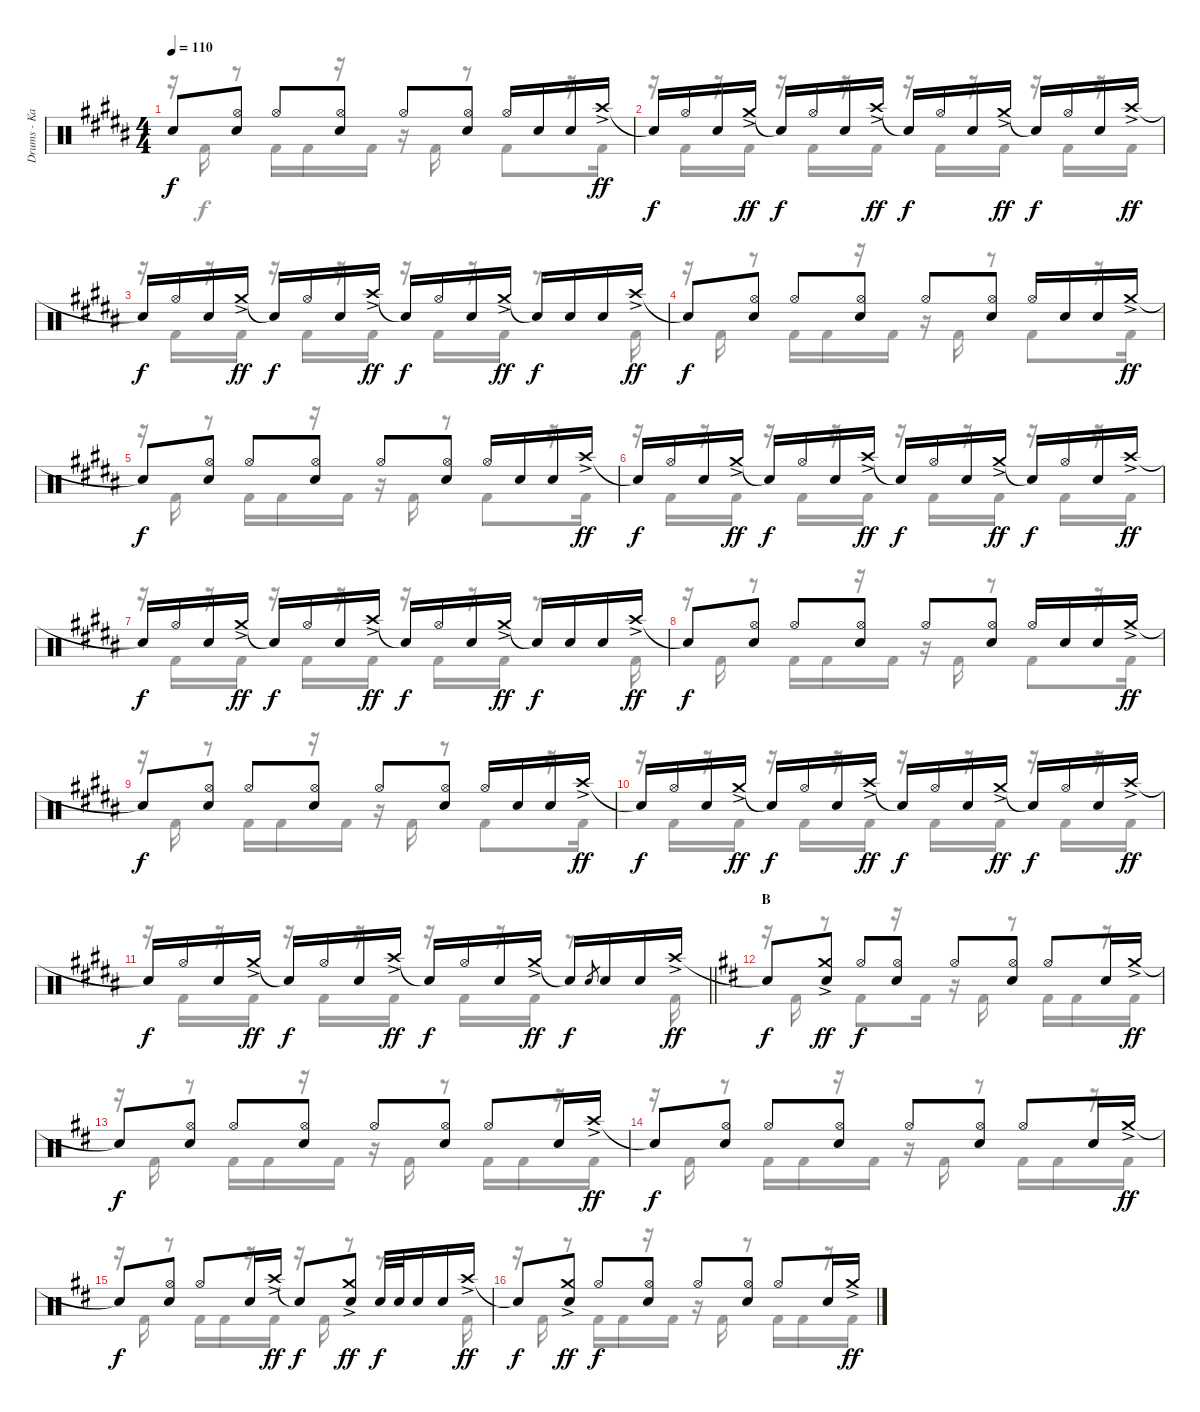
\track ("Drums - Kai" "Drums - Ka") {instrument percussion}
\staff {score}
\articulation defaults
\voice
\ts (4 4)
\tempo 110
\clef neutral
\ks b "Snare (hit)"{t}.8{dy f}
("Hi-Hat (open)" "Snare (hit) 2").8 "Hi-Hat (open)".8 ("Hi-Hat (open)" "Snare (hit) 2").8 "Hi-Hat (open)".8 ("Hi-Hat (open)" "Snare (hit) 2").8 "Hi-Hat (open)".16 "Snare (hit) 2".16 "Snare (hit) 2".16 "Crash high (hit)"{ac}.16{dy ff} |
"Snare (hit)"{t}.16{dy f} "Hi-Hat (open)".16 "Snare (hit) 2".16 "Crash medium (hit)"{ac}.16{dy ff} "Snare (hit)"{t}.16{dy f} "Hi-Hat (open)".16 "Snare (hit) 2".16 "Crash high (hit)"{ac}.16{dy ff} "Snare (hit)"{t}.16{dy f} "Hi-Hat (open)".16 "Snare (hit) 2".16 "Crash medium (hit)"{ac}.16{dy ff} "Snare (hit)"{t}.16{dy f} "Hi-Hat (open)".16 "Snare (hit) 2".16 "Crash high (hit)"{ac}.16{dy ff} |
"Snare (hit)"{t}.16{dy f} "Hi-Hat (open)".16 "Snare (hit) 2".16 "Crash medium (hit)"{ac}.16{dy ff} "Snare (hit)"{t}.16{dy f} "Hi-Hat (open)".16 "Snare (hit) 2".16 "Crash high (hit)"{ac}.16{dy ff} "Snare (hit)"{t}.16{dy f} "Hi-Hat (open)".16 "Snare (hit) 2".16 "Crash medium (hit)"{ac}.16{dy ff} "Snare (hit)"{t}.16{dy f} "Snare (hit) 2".16 "Snare (hit) 2".16 "Crash high (hit)"{ac}.16{dy ff} |
"Snare (hit)"{t}.8{dy f} ("Hi-Hat (open)" "Snare (hit) 2").8 "Hi-Hat (open)".8 ("Hi-Hat (open)" "Snare (hit) 2").8 "Hi-Hat (open)".8 ("Hi-Hat (open)" "Snare (hit) 2").8 "Hi-Hat (open)".16 "Snare (hit) 2".16 "Snare (hit) 2".16 "Crash medium (hit)"{ac}.16{dy ff} |
"Snare (hit)"{t}.8{dy f} ("Hi-Hat (open)" "Snare (hit) 2").8 "Hi-Hat (open)".8 ("Hi-Hat (open)" "Snare (hit) 2").8 "Hi-Hat (open)".8 ("Hi-Hat (open)" "Snare (hit) 2").8 "Hi-Hat (open)".16 "Snare (hit) 2".16 "Snare (hit) 2".16 "Crash high (hit)"{ac}.16{dy ff} |
"Snare (hit)"{t}.16{dy f} "Hi-Hat (open)".16 "Snare (hit) 2".16 "Crash medium (hit)"{ac}.16{dy ff} "Snare (hit)"{t}.16{dy f} "Hi-Hat (open)".16 "Snare (hit) 2".16 "Crash high (hit)"{ac}.16{dy ff} "Snare (hit)"{t}.16{dy f} "Hi-Hat (open)".16 "Snare (hit) 2".16 "Crash medium (hit)"{ac}.16{dy ff} "Snare (hit)"{t}.16{dy f} "Hi-Hat (open)".16 "Snare (hit) 2".16 "Crash high (hit)"{ac}.16{dy ff} |
"Snare (hit)"{t}.16{dy f} "Hi-Hat (open)".16 "Snare (hit) 2".16 "Crash medium (hit)"{ac}.16{dy ff} "Snare (hit)"{t}.16{dy f} "Hi-Hat (open)".16 "Snare (hit) 2".16 "Crash high (hit)"{ac}.16{dy ff} "Snare (hit)"{t}.16{dy f} "Hi-Hat (open)".16 "Snare (hit) 2".16 "Crash medium (hit)"{ac}.16{dy ff} "Snare (hit)"{t}.16{dy f} "Snare (hit) 2".16 "Snare (hit) 2".16 "Crash high (hit)"{ac}.16{dy ff} |
"Snare (hit)"{t}.8{dy f} ("Hi-Hat (open)" "Snare (hit) 2").8 "Hi-Hat (open)".8 ("Hi-Hat (open)" "Snare (hit) 2").8 "Hi-Hat (open)".8 ("Hi-Hat (open)" "Snare (hit) 2").8 "Hi-Hat (open)".16 "Snare (hit) 2".16 "Snare (hit) 2".16 "Crash medium (hit)"{ac}.16{dy ff} |
"Snare (hit)"{t}.8{dy f} ("Hi-Hat (open)" "Snare (hit) 2").8 "Hi-Hat (open)".8 ("Hi-Hat (open)" "Snare (hit) 2").8 "Hi-Hat (open)".8 ("Hi-Hat (open)" "Snare (hit) 2").8 "Hi-Hat (open)".16 "Snare (hit) 2".16 "Snare (hit) 2".16 "Crash high (hit)"{ac}.16{dy ff} |
"Snare (hit)"{t}.16{dy f} "Hi-Hat (open)".16 "Snare (hit) 2".16 "Crash medium (hit)"{ac}.16{dy ff} "Snare (hit)"{t}.16{dy f} "Hi-Hat (open)".16 "Snare (hit) 2".16 "Crash high (hit)"{ac}.16{dy ff} "Snare (hit)"{t}.16{dy f} "Hi-Hat (open)".16 "Snare (hit) 2".16 "Crash medium (hit)"{ac}.16{dy ff} "Snare (hit)"{t}.16{dy f} "Hi-Hat (open)".16 "Snare (hit) 2".16 "Crash high (hit)"{ac}.16{dy ff} |
\barLineRight lightlight "Snare (hit)"{t}.16{dy f} "Hi-Hat (open)".16 "Snare (hit) 2".16 "Crash medium (hit)"{ac}.16{dy ff} "Snare (hit)"{t}.16{dy f} "Hi-Hat (open)".16 "Snare (hit) 2".16 "Crash high (hit)"{ac}.16{dy ff} "Snare (hit)"{t}.16{dy f} "Hi-Hat (open)".16 "Snare (hit) 2".16 "Crash medium (hit)"{ac}.16{dy ff} "Snare (hit)"{t}.16{dy f} "Snare (hit) 2".8{gr} "Snare (hit) 2".16 "Snare (hit) 2".16 "Crash high (hit)"{ac}.16{dy ff}
|
\section ("" "B")
\ks d "Snare (hit)"{t}.8{dy f}
("Crash medium (hit)"{ac} "Snare (hit) 2").8{dy ff} "Hi-Hat (open)".8{dy f} ("Hi-Hat (open)" "Snare (hit) 2").8 "Hi-Hat (open)".8 ("Hi-Hat (open)" "Snare (hit) 2").8 "Hi-Hat (open)".8 "Snare (hit) 2".16 "Crash medium (hit)"{ac}.16{dy ff} |
"Snare (hit)"{t}.8{dy f} ("Hi-Hat (open)" "Snare (hit) 2").8 "Hi-Hat (open)".8 ("Hi-Hat (open)" "Snare (hit) 2").8 "Hi-Hat (open)".8 ("Hi-Hat (open)" "Snare (hit) 2").8 "Hi-Hat (open)".8 "Snare (hit) 2".16 "Crash high (hit)"{ac}.16{dy ff} |
"Snare (hit)"{t}.8{dy f} ("Hi-Hat (open)" "Snare (hit) 2").8 "Hi-Hat (open)".8 ("Hi-Hat (open)" "Snare (hit) 2").8 "Hi-Hat (open)".8 ("Hi-Hat (open)" "Snare (hit) 2").8 "Hi-Hat (open)".8 "Snare (hit) 2".16 "Crash medium (hit)"{ac}.16{dy ff} |
"Snare (hit)"{t}.8{dy f} ("Hi-Hat (open)" "Snare (hit) 2").8 "Hi-Hat (open)".8 "Snare (hit) 2".16 "Crash high (hit)"{ac}.16{dy ff} "Snare (hit)"{t}.8{dy f} ("Crash medium (hit)"{ac} "Snare (hit) 2").8{dy ff} "Snare (hit) 2".32{dy f} "Snare (hit) 2".32 "Snare (hit) 2".16 "Snare (hit) 2".16 "Crash high (hit)"{ac}.16{dy ff} |
"Snare (hit)"{t}.8{dy f} ("Crash medium (hit)"{ac} "Snare (hit) 2").8{dy ff} "Hi-Hat (open)".8{dy f} ("Hi-Hat (open)" "Snare (hit) 2").8 "Hi-Hat (open)".8 ("Hi-Hat (open)" "Snare (hit) 2").8 "Hi-Hat (open)".8 "Snare (hit) 2".16 "Crash medium (hit)"{ac}.16{dy ff}
\voice
\clef neutral
\ottava regular
\simile none
\ks b
r.16{dy f} "Kick (hit) 2".16 r.8 "Kick (hit) 2".16 "Kick (hit) 2".16 r.16 "Kick (hit) 2".16 r.16 "Kick (hit) 2".16 r.8 "Kick (hit) 2".8 r.16 "Kick (hit) 2".16 |
r.16 "Kick (hit) 2".16 r.16 "Kick (hit) 2".16 r.16 "Kick (hit) 2".16 r.16 "Kick (hit) 2".16 r.16 "Kick (hit) 2".16 r.16 "Kick (hit) 2".16 r.16 "Kick (hit) 2".16 r.16 "Kick (hit) 2".16 |
r.16 "Kick (hit) 2".16 r.16 "Kick (hit) 2".16 r.16 "Kick (hit) 2".16 r.16 "Kick (hit) 2".16 r.16 "Kick (hit) 2".16 r.16 "Kick (hit) 2".16 r.8{d} "Kick (hit) 2".16 |
r.16 "Kick (hit) 2".16 r.8 "Kick (hit) 2".16 "Kick (hit) 2".16 r.16 "Kick (hit) 2".16 r.16 "Kick (hit) 2".16 r.8 "Kick (hit) 2".8 r.16 "Kick (hit) 2".16 |
r.16 "Kick (hit) 2".16 r.8 "Kick (hit) 2".16 "Kick (hit) 2".16 r.16 "Kick (hit) 2".16 r.16 "Kick (hit) 2".16 r.8 "Kick (hit) 2".8 r.16 "Kick (hit) 2".16 |
r.16 "Kick (hit) 2".16 r.16 "Kick (hit) 2".16 r.16 "Kick (hit) 2".16 r.16 "Kick (hit) 2".16 r.16 "Kick (hit) 2".16 r.16 "Kick (hit) 2".16 r.16 "Kick (hit) 2".16 r.16 "Kick (hit) 2".16 |
r.16 "Kick (hit) 2".16 r.16 "Kick (hit) 2".16 r.16 "Kick (hit) 2".16 r.16 "Kick (hit) 2".16 r.16 "Kick (hit) 2".16 r.16 "Kick (hit) 2".16 r.8{d} "Kick (hit) 2".16 |
r.16 "Kick (hit) 2".16 r.8 "Kick (hit) 2".16 "Kick (hit) 2".16 r.16 "Kick (hit) 2".16 r.16 "Kick (hit) 2".16 r.8 "Kick (hit) 2".8 r.16 "Kick (hit) 2".16 |
r.16 "Kick (hit) 2".16 r.8 "Kick (hit) 2".16 "Kick (hit) 2".16 r.16 "Kick (hit) 2".16 r.16 "Kick (hit) 2".16 r.8 "Kick (hit) 2".8 r.16 "Kick (hit) 2".16 |
r.16 "Kick (hit) 2".16 r.16 "Kick (hit) 2".16 r.16 "Kick (hit) 2".16 r.16 "Kick (hit) 2".16 r.16 "Kick (hit) 2".16 r.16 "Kick (hit) 2".16 r.16 "Kick (hit) 2".16 r.16 "Kick (hit) 2".16 |
\barLineRight lightlight
r.16 "Kick (hit) 2".16 r.16 "Kick (hit) 2".16 r.16 "Kick (hit) 2".16 r.16 "Kick (hit) 2".16 r.16 "Kick (hit) 2".16 r.16 "Kick (hit) 2".16 r.8{d} "Kick (hit) 2".16 |
\ks d
r.16 "Kick (hit) 2".16 r.8 "Kick (hit) 2".8 r.16 "Kick (hit) 2".16 r.16 "Kick (hit) 2".16 r.8 "Kick (hit) 2".16 "Kick (hit) 2".16 r.16 "Kick (hit) 2".16 |
r.16 "Kick (hit) 2".16 r.8 "Kick (hit) 2".16 "Kick (hit) 2".16 r.16 "Kick (hit) 2".16 r.16 "Kick (hit) 2".16 r.8 "Kick (hit) 2".16 "Kick (hit) 2".16 r.16 "Kick (hit) 2".16 |
r.16 "Kick (hit) 2".16 r.8 "Kick (hit) 2".16 "Kick (hit) 2".16 r.16 "Kick (hit) 2".16 r.16 "Kick (hit) 2".16 r.8 "Kick (hit) 2".16 "Kick (hit) 2".16 r.16 "Kick (hit) 2".16 |
r.16 "Kick (hit) 2".16 r.8 "Kick (hit) 2".16 "Kick (hit) 2".16 r.16 "Kick (hit) 2".16 r.16 "Kick (hit) 2".16 r.8 r.8{d} "Kick (hit) 2".16 |
r.16 "Kick (hit) 2".16 r.8 "Kick (hit) 2".16 "Kick (hit) 2".16 r.16 "Kick (hit) 2".16 r.16 "Kick (hit) 2".16 r.8 "Kick (hit) 2".16 "Kick (hit) 2".16 r.16 "Kick (hit) 2".16
